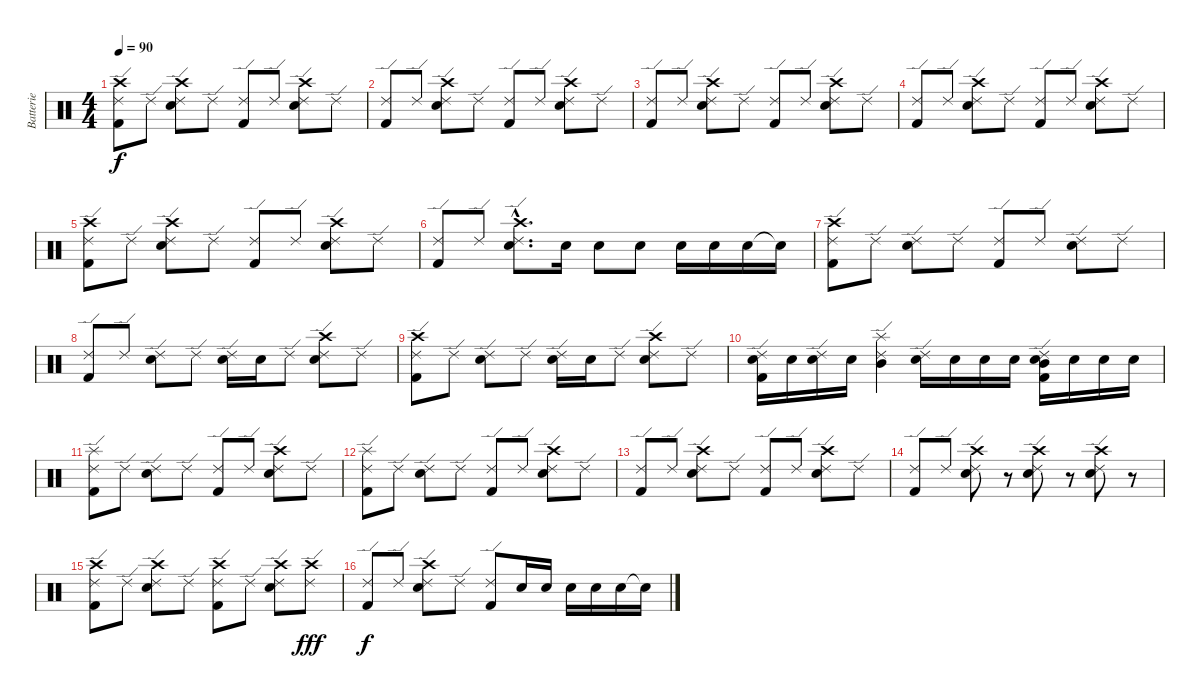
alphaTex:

\track ("Batterie" "Batterie") {instrument percussion}
\staff {score}
\articulation defaults
\ts (4 4)
\tempo 90
\clef neutral
\ks c
("Ride (edge) 2" "Kick (hit) 2" "Crash high (hit)").8{dy f} "Ride (edge) 2".8 ("Ride (edge) 2" "Electric Snare (hit)" "Crash high (hit)").8 "Ride (edge) 2".8 ("Ride (edge) 2" "Kick (hit) 2").8 "Ride (edge) 2".8 ("Ride (edge) 2" "Electric Snare (hit)" "Crash high (hit)").8 "Ride (edge) 2".8 |
("Ride (edge) 2" "Kick (hit) 2").8 "Ride (edge) 2".8 ("Ride (edge) 2" "Electric Snare (hit)" "Crash high (hit)").8 "Ride (edge) 2".8 ("Ride (edge) 2" "Kick (hit) 2").8 "Ride (edge) 2".8 ("Ride (edge) 2" "Electric Snare (hit)" "Crash high (hit)").8 "Ride (edge) 2".8 |
("Ride (edge) 2" "Kick (hit) 2").8 "Ride (edge) 2".8 ("Ride (edge) 2" "Electric Snare (hit)" "Crash high (hit)").8 "Ride (edge) 2".8 ("Ride (edge) 2" "Kick (hit) 2").8 "Ride (edge) 2".8 ("Ride (edge) 2" "Electric Snare (hit)" "Crash high (hit)").8 "Ride (edge) 2".8 |
("Ride (edge) 2" "Kick (hit) 2").8 "Ride (edge) 2".8 ("Ride (edge) 2" "Electric Snare (hit)" "Crash high (hit)").8 "Ride (edge) 2".8 ("Ride (edge) 2" "Kick (hit) 2").8 "Ride (edge) 2".8 ("Ride (edge) 2" "Electric Snare (hit)" "Crash high (hit)").8 "Ride (edge) 2".8 |
("Ride (edge) 2" "Kick (hit) 2" "Crash high (hit)").8 "Ride (edge) 2".8 ("Ride (edge) 2" "Electric Snare (hit)" "Crash high (hit)").8 "Ride (edge) 2".8 ("Ride (edge) 2" "Kick (hit) 2").8 "Ride (edge) 2".8 ("Ride (edge) 2" "Electric Snare (hit)" "Crash high (hit)").8 "Ride (edge) 2".8 |
("Ride (edge) 2" "Kick (hit) 2").8 "Ride (edge) 2".8 ("Ride (edge) 2"{hac} "Electric Snare (hit)"{hac} "Crash high (hit)"{hac}).8{d} "Electric Snare (hit)".16 "Electric Snare (hit)".8 "Electric Snare (hit)".8 "Electric Snare (hit)".16 "Electric Snare (hit)".16 "Electric Snare (hit)".16 "Snare (hit)"{t}.16 |
("Ride (edge) 2" "Kick (hit) 2" "Crash high (hit)").8 "Ride (edge) 2".8 ("Ride (edge) 2" "Electric Snare (hit)").8 "Ride (edge) 2".8 ("Ride (edge) 2" "Kick (hit) 2").8 "Ride (edge) 2".8 ("Ride (edge) 2" "Electric Snare (hit)").8 "Ride (edge) 2".8 |
("Ride (edge) 2" "Kick (hit) 2").8 "Ride (edge) 2".8 ("Ride (edge) 2" "Electric Snare (hit)").8 "Ride (edge) 2".8 ("Ride (edge) 2" "Electric Snare (hit)").16 "Electric Snare (hit)".16 "Ride (edge) 2".8 ("Ride (edge) 2" "Electric Snare (hit)" "Crash high (hit)").8 "Ride (edge) 2".8 |
("Ride (edge) 2" "Kick (hit) 2" "Crash high (hit)").8 "Ride (edge) 2".8 ("Ride (edge) 2" "Electric Snare (hit)").8 "Ride (edge) 2".8 ("Ride (edge) 2" "Electric Snare (hit)").16 "Electric Snare (hit)".16 "Ride (edge) 2".8 ("Ride (edge) 2" "Electric Snare (hit)" "Crash high (hit)").8 "Ride (edge) 2".8 |
("Ride (edge) 2" "Kick (hit) 2" "Electric Snare (hit)").16 "Electric Snare (hit)".16 ("Ride (edge) 2" "Electric Snare (hit)").16 "Electric Snare (hit)".16 ("Ride (edge) 2" "Mid Tom (hit)" "Splash (hit)").4 ("Ride (edge) 2" "Electric Snare (hit)").16 "Electric Snare (hit)".16 "Electric Snare (hit)".16 "Electric Snare (hit)".16 ("Ride (edge) 2" "Mid Tom (hit)" "Kick (hit) 2" "Electric Snare (hit)").16 "Electric Snare (hit)".16 "Electric Snare (hit)".16 "Electric Snare (hit)".16 |
("Ride (edge) 2" "Kick (hit) 2" "Splash (hit)").8 "Ride (edge) 2".8 ("Ride (edge) 2" "Electric Snare (hit)").8 "Ride (edge) 2".8 ("Ride (edge) 2" "Kick (hit) 2").8 "Ride (edge) 2".8 ("Ride (edge) 2" "Electric Snare (hit)" "Crash high (hit)").8 "Ride (edge) 2".8 |
("Ride (edge) 2" "Kick (hit) 2" "Splash (hit)").8 "Ride (edge) 2".8 ("Ride (edge) 2" "Electric Snare (hit)").8 "Ride (edge) 2".8 ("Ride (edge) 2" "Kick (hit) 2").8 "Ride (edge) 2".8 ("Ride (edge) 2" "Electric Snare (hit)" "Crash high (hit)").8 "Ride (edge) 2".8 |
("Ride (edge) 2" "Kick (hit) 2").8 "Ride (edge) 2".8 ("Ride (edge) 2" "Electric Snare (hit)" "Crash high (hit)").8 "Ride (edge) 2".8 ("Ride (edge) 2" "Kick (hit) 2").8 "Ride (edge) 2".8 ("Ride (edge) 2" "Electric Snare (hit)" "Crash high (hit)").8 "Ride (edge) 2".8 |
("Ride (edge) 2" "Kick (hit) 2").8 "Ride (edge) 2".8 ("Ride (edge) 2" "Electric Snare (hit)" "Crash high (hit)").8 r.8 ("Ride (edge) 2" "Electric Snare (hit)" "Crash high (hit)").8 r.8 ("Ride (edge) 2" "Electric Snare (hit)" "Crash high (hit)").8 r.8 |
("Ride (edge) 2" "Kick (hit) 2" "Crash high (hit)").8 "Ride (edge) 2".8 ("Ride (edge) 2" "Electric Snare (hit)" "Crash high (hit)").8 "Ride (edge) 2".8 ("Ride (edge) 2" "Kick (hit) 2" "Crash high (hit)").8 "Ride (edge) 2".8 ("Ride (edge) 2" "Electric Snare (hit)" "Crash high (hit)").8 ("Ride (edge) 2" "Crash high (hit)").8{dy fff} |
("Ride (edge) 2" "Kick (hit) 2").8{dy f} "Ride (edge) 2".8 ("Ride (edge) 2" "Electric Snare (hit)" "Crash high (hit)").8 "Ride (edge) 2".8 ("Ride (edge) 2" "Kick (hit) 2").8 "Electric Snare (hit)".16 "Electric Snare (hit)".16 "Electric Snare (hit)".16 "Electric Snare (hit)".16 "Electric Snare (hit)".16 "Electric Snare (hit)"{t}.16
